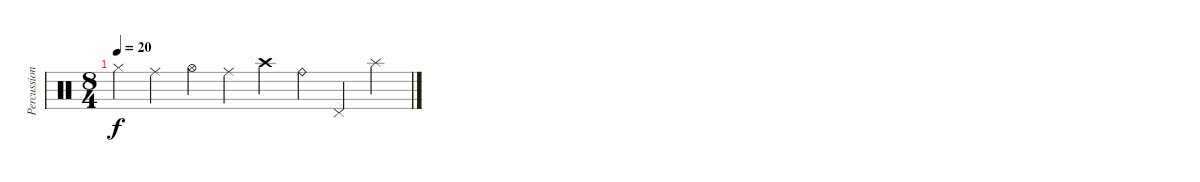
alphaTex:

\track ("Percussions" "Percussion") {instrument percussion}
\staff {score}
\articulation defaults
\ts (8 4)
\tempo 20
\clef neutral
\ks c "Hi-Hat (closed)".4{dy f} "Ride (middle)".4 "Hi-Hat (open)".4 "Ride (middle)".4 "Crash high (hit)".4 "Ride (bell)".4 "Pedal Hi-Hat (hit)".4 "Splash (hit)".4
